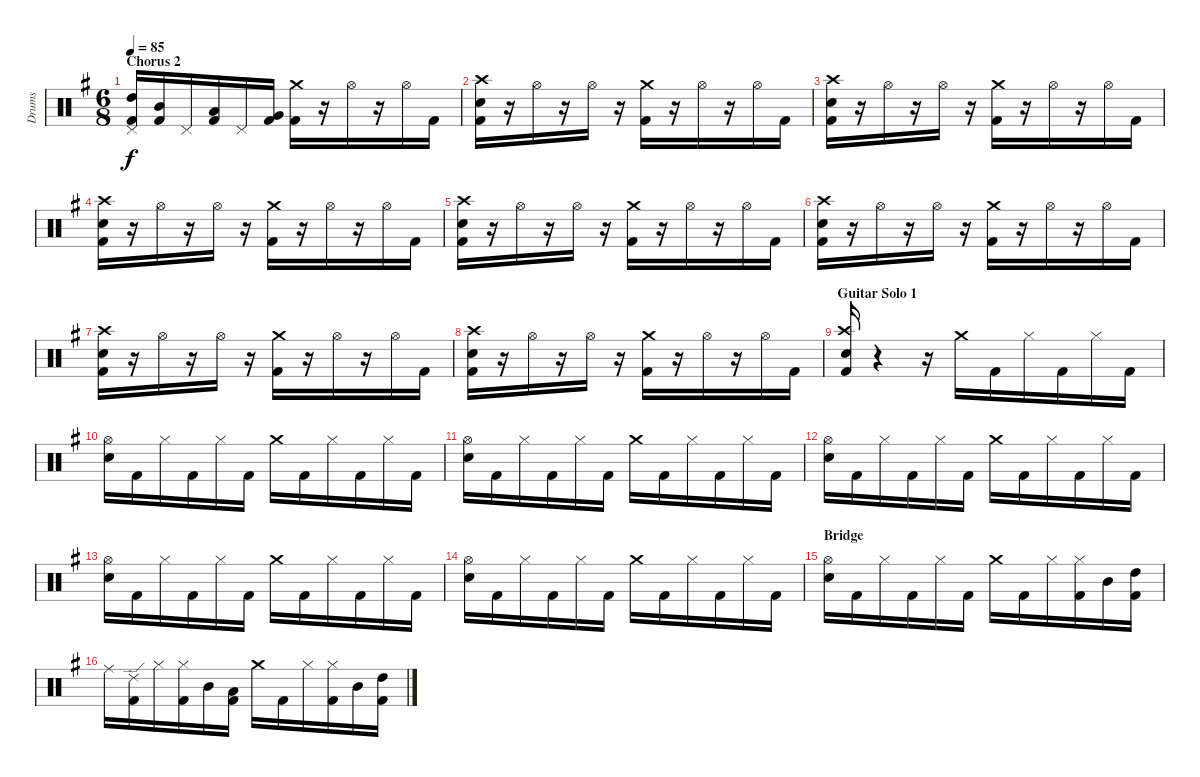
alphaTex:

\track ("Drums" "Drums") {instrument percussion}
\staff {score}
\articulation defaults
\ts (6 8)
\section ("" "Chorus 2")
\tempo 85
\clef neutral
\ks eminor
("High Tom (hit)" "Pedal Hi-Hat (hit)" "Kick (hit) 2").16{dy f} ("Mid Tom (hit)" "Kick (hit) 2").16 "Pedal Hi-Hat (hit)".16 ("Low Tom (hit)" "Kick (hit) 2").16 "Pedal Hi-Hat (hit)".16 ("Very Low Tom (hit)" "Kick (hit) 2").16 ("Crash medium (hit)" "Kick (hit) 2").16 r.16 "Hi-Hat (open)".16 r.16 "Hi-Hat (open)".16 "Kick (hit) 2".16 |
("Crash high (hit)" "Electric Snare (hit)" "Kick (hit) 2").16 r.16 "Hi-Hat (open)".16 r.16 "Hi-Hat (open)".16 r.16 ("Crash medium (hit)" "Kick (hit) 2").16 r.16 "Hi-Hat (open)".16 r.16 "Hi-Hat (open)".16 "Kick (hit) 2".16 |
("Crash high (hit)" "Electric Snare (hit)" "Kick (hit) 2").16 r.16 "Hi-Hat (open)".16 r.16 "Hi-Hat (open)".16 r.16 ("Crash medium (hit)" "Kick (hit) 2").16 r.16 "Hi-Hat (open)".16 r.16 "Hi-Hat (open)".16 "Kick (hit) 2".16 |
("Crash high (hit)" "Electric Snare (hit)" "Kick (hit) 2").16 r.16 "Hi-Hat (open)".16 r.16 "Hi-Hat (open)".16 r.16 ("Crash medium (hit)" "Kick (hit) 2").16 r.16 "Hi-Hat (open)".16 r.16 "Hi-Hat (open)".16 "Kick (hit) 2".16 |
("Crash high (hit)" "Electric Snare (hit)" "Kick (hit) 2").16 r.16 "Hi-Hat (open)".16 r.16 "Hi-Hat (open)".16 r.16 ("Crash medium (hit)" "Kick (hit) 2").16 r.16 "Hi-Hat (open)".16 r.16 "Hi-Hat (open)".16 "Kick (hit) 2".16 |
("Crash high (hit)" "Electric Snare (hit)" "Kick (hit) 2").16 r.16 "Hi-Hat (open)".16 r.16 "Hi-Hat (open)".16 r.16 ("Crash medium (hit)" "Kick (hit) 2").16 r.16 "Hi-Hat (open)".16 r.16 "Hi-Hat (open)".16 "Kick (hit) 2".16 |
("Crash high (hit)" "Electric Snare (hit)" "Kick (hit) 2").16 r.16 "Hi-Hat (open)".16 r.16 "Hi-Hat (open)".16 r.16 ("Crash medium (hit)" "Kick (hit) 2").16 r.16 "Hi-Hat (open)".16 r.16 "Hi-Hat (open)".16 "Kick (hit) 2".16 |
("Crash high (hit)" "Electric Snare (hit)" "Kick (hit) 2").16 r.16 "Hi-Hat (open)".16 r.16 "Hi-Hat (open)".16 r.16 ("Crash medium (hit)" "Kick (hit) 2").16 r.16 "Hi-Hat (open)".16 r.16 "Hi-Hat (open)".16 "Kick (hit) 2".16 |
\section ("" "Guitar Solo 1")
("Crash high (hit)" "Electric Snare (hit)" "Kick (hit) 2").16 r.4 r.16 "Crash medium (hit)".16 "Kick (hit) 2".16 "Hi-Hat (closed)".16 "Kick (hit) 2".16 "Hi-Hat (closed)".16 "Kick (hit) 2".16 |
("Hi-Hat (open)" "Electric Snare (hit)").16 "Kick (hit) 2".16 "Hi-Hat (closed)".16 "Kick (hit) 2".16 "Hi-Hat (closed)".16 "Kick (hit) 2".16 "Crash medium (hit)".16 "Kick (hit) 2".16 "Hi-Hat (closed)".16 "Kick (hit) 2".16 "Hi-Hat (closed)".16 "Kick (hit) 2".16 |
("Hi-Hat (open)" "Electric Snare (hit)").16 "Kick (hit) 2".16 "Hi-Hat (closed)".16 "Kick (hit) 2".16 "Hi-Hat (closed)".16 "Kick (hit) 2".16 "Crash medium (hit)".16 "Kick (hit) 2".16 "Hi-Hat (closed)".16 "Kick (hit) 2".16 "Hi-Hat (closed)".16 "Kick (hit) 2".16 |
("Hi-Hat (open)" "Electric Snare (hit)").16 "Kick (hit) 2".16 "Hi-Hat (closed)".16 "Kick (hit) 2".16 "Hi-Hat (closed)".16 "Kick (hit) 2".16 "Crash medium (hit)".16 "Kick (hit) 2".16 "Hi-Hat (closed)".16 "Kick (hit) 2".16 "Hi-Hat (closed)".16 "Kick (hit) 2".16 |
("Hi-Hat (open)" "Electric Snare (hit)").16 "Kick (hit) 2".16 "Hi-Hat (closed)".16 "Kick (hit) 2".16 "Hi-Hat (closed)".16 "Kick (hit) 2".16 "Crash medium (hit)".16 "Kick (hit) 2".16 "Hi-Hat (closed)".16 "Kick (hit) 2".16 "Hi-Hat (closed)".16 "Kick (hit) 2".16 |
("Hi-Hat (open)" "Electric Snare (hit)").16 "Kick (hit) 2".16 "Hi-Hat (closed)".16 "Kick (hit) 2".16 "Hi-Hat (closed)".16 "Kick (hit) 2".16 "Crash medium (hit)".16 "Kick (hit) 2".16 "Hi-Hat (closed)".16 "Kick (hit) 2".16 "Hi-Hat (closed)".16 "Kick (hit) 2".16 |
\section ("" "Bridge")
("Hi-Hat (open)" "Electric Snare (hit)").16 "Kick (hit) 2".16 "Hi-Hat (closed)".16 "Kick (hit) 2".16 "Hi-Hat (closed)".16 "Kick (hit) 2".16 "Crash medium (hit)".16 "Kick (hit) 2".16 "Hi-Hat (closed)".16 ("Hi-Hat (closed)" "Kick (hit) 2").16 "Mid Tom (hit)".16 ("High Tom (hit)" "Kick (hit) 2").16 |
"Ride (middle)".16 ("Ride (edge) 2" "Kick (hit) 2").16 "Hi-Hat (closed)".16 ("Hi-Hat (closed)" "Kick (hit) 2").16 "Mid Tom (hit)".16 ("Low Tom (hit)" "Kick (hit) 2").16 "Crash medium (hit)".16 "Kick (hit) 2".16 "Hi-Hat (closed)".16 ("Hi-Hat (closed)" "Kick (hit) 2").16 "Mid Tom (hit)".16 ("High Tom (hit)" "Kick (hit) 2").16
